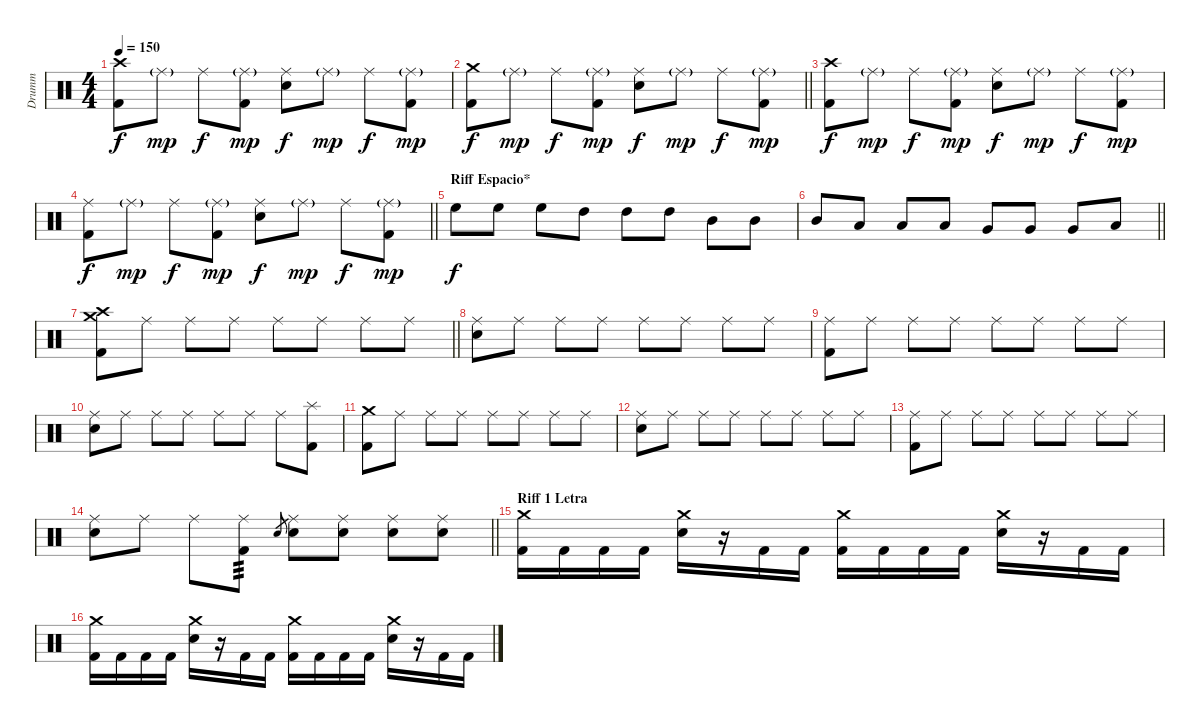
\track ("Drumm" "Drumm") {instrument percussion}
\staff {score}
\articulation defaults
\ts (4 4)
\tempo 150
\clef neutral
\ks c
("Crash high (hit)" "Kick (hit) 2").8{dy f} "Ride (middle)"{g}.8{dy mp} "Ride (middle)".8{dy f} ("Ride (middle)"{g} "Kick (hit) 2").8{dy mp} ("Ride (middle)" "Snare (hit) 2").8{dy f} "Ride (middle)"{g}.8{dy mp} "Ride (middle)".8{dy f} ("Ride (middle)"{g} "Kick (hit) 2").8{dy mp} |
\barLineRight lightlight
("Crash medium (hit)" "Kick (hit) 2").8{dy f} "Ride (middle)"{g}.8{dy mp} "Ride (middle)".8{dy f} ("Ride (middle)"{g} "Kick (hit) 2").8{dy mp} ("Ride (middle)" "Snare (hit) 2").8{dy f} "Ride (middle)"{g}.8{dy mp} "Ride (middle)".8{dy f} ("Ride (middle)"{g} "Kick (hit) 2").8{dy mp} |
("Crash high (hit)" "Kick (hit) 2").8{dy f} "Ride (middle)"{g}.8{dy mp} "Ride (middle)".8{dy f} ("Ride (middle)"{g} "Kick (hit) 2").8{dy mp} ("Ride (middle)" "Snare (hit) 2").8{dy f} "Ride (middle)"{g}.8{dy mp} "Ride (middle)".8{dy f} ("Ride (middle)"{g} "Kick (hit) 2").8{dy mp} |
\barLineRight lightlight
("Ride (middle)" "Kick (hit) 2").8{dy f} "Ride (middle)"{g}.8{dy mp} "Ride (middle)".8{dy f} ("Ride (middle)"{g} "Kick (hit) 2").8{dy mp} ("Ride (middle)" "Snare (hit) 2").8{dy f} "Ride (middle)"{g}.8{dy mp} "Ride (middle)".8{dy f} ("Ride (middle)"{g} "Kick (hit) 2").8{dy mp} |
\section ("" "Riff Espacio*")
"High Floor Tom (hit)".8{dy f} "High Floor Tom (hit)".8 "High Floor Tom (hit)".8 "High Tom (hit)".8 "High Tom (hit)".8 "High Tom (hit)".8 "Mid Tom (hit)".8 "Mid Tom (hit)".8 |
\barLineRight lightlight "Mid Tom (hit)".8 "Low Tom (hit)".8 "Low Tom (hit)".8 "Low Tom (hit)".8 "Very Low Tom (hit)".8 "Very Low Tom (hit)".8 "Very Low Tom (hit)".8 "Low Floor Tom (hit)".8
|
\barLineRight lightlight
("Crash high (hit)" "Crash medium (hit)" "Kick (hit) 2").8 "Ride (middle)".8 "Ride (middle)".8 "Ride (middle)".8 "Ride (middle)".8 "Ride (middle)".8 "Ride (middle)".8 "Ride (middle)".8 |
("Ride (middle)" "Snare (hit) 2").8 "Ride (middle)".8 "Ride (middle)".8 "Ride (middle)".8 "Ride (middle)".8 "Ride (middle)".8 "Ride (middle)".8 "Ride (middle)".8 |
("Ride (middle)" "Kick (hit) 2").8 "Ride (middle)".8 "Ride (middle)".8 "Ride (middle)".8 "Ride (middle)".8 "Ride (middle)".8 "Ride (middle)".8 "Ride (middle)".8 |
("Ride (middle)" "Snare (hit) 2").8 "Ride (middle)".8 "Ride (middle)".8 "Ride (middle)".8 "Ride (middle)".8 "Ride (middle)".8 "Ride (middle)".8 ("Splash (hit)" "Kick (hit) 2").8 |
("Crash medium (hit)" "Kick (hit) 2").8 "Ride (middle)".8 "Ride (middle)".8 "Ride (middle)".8 "Ride (middle)".8 "Ride (middle)".8 "Ride (middle)".8 "Ride (middle)".8 |
("Ride (middle)" "Snare (hit) 2").8 "Ride (middle)".8 "Ride (middle)".8 "Ride (middle)".8 "Ride (middle)".8 "Ride (middle)".8 "Ride (middle)".8 "Ride (middle)".8 |
("Ride (middle)" "Kick (hit) 2").8 "Ride (middle)".8 "Ride (middle)".8 "Ride (middle)".8 "Ride (middle)".8 "Ride (middle)".8 "Ride (middle)".8 "Ride (middle)".8 |
\barLineRight lightlight
("Ride (middle)" "Snare (hit) 2").8 "Ride (middle)".8 "Ride (middle)".8 ("Ride (middle)" "Kick (hit) 2").8{tp 3} "Snare (hit) 2".8{gr} ("Ride (middle)" "Snare (hit) 2").8 ("Ride (middle)" "Snare (hit) 2").8 ("Ride (middle)" "Snare (hit) 2").8 ("Ride (middle)" "Snare (hit) 2").8 |
\section ("" "Riff 1 Letra")
("Crash medium (hit)" "Kick (hit) 2").16 "Kick (hit) 2".16 "Kick (hit) 2".16 "Kick (hit) 2".16 ("Crash medium (hit)" "Snare (hit) 2").16 r.16 "Kick (hit) 2".16 "Kick (hit) 2".16 ("Crash medium (hit)" "Kick (hit) 2").16 "Kick (hit) 2".16 "Kick (hit) 2".16 "Kick (hit) 2".16 ("Crash medium (hit)" "Snare (hit) 2").16 r.16 "Kick (hit) 2".16 "Kick (hit) 2".16 |
("Crash medium (hit)" "Kick (hit) 2").16 "Kick (hit) 2".16 "Kick (hit) 2".16 "Kick (hit) 2".16 ("Crash medium (hit)" "Snare (hit) 2").16 r.16 "Kick (hit) 2".16 "Kick (hit) 2".16 ("Crash medium (hit)" "Kick (hit) 2").16 "Kick (hit) 2".16 "Kick (hit) 2".16 "Kick (hit) 2".16 ("Crash medium (hit)" "Snare (hit) 2").16 r.16 "Kick (hit) 2".16 "Kick (hit) 2".16
